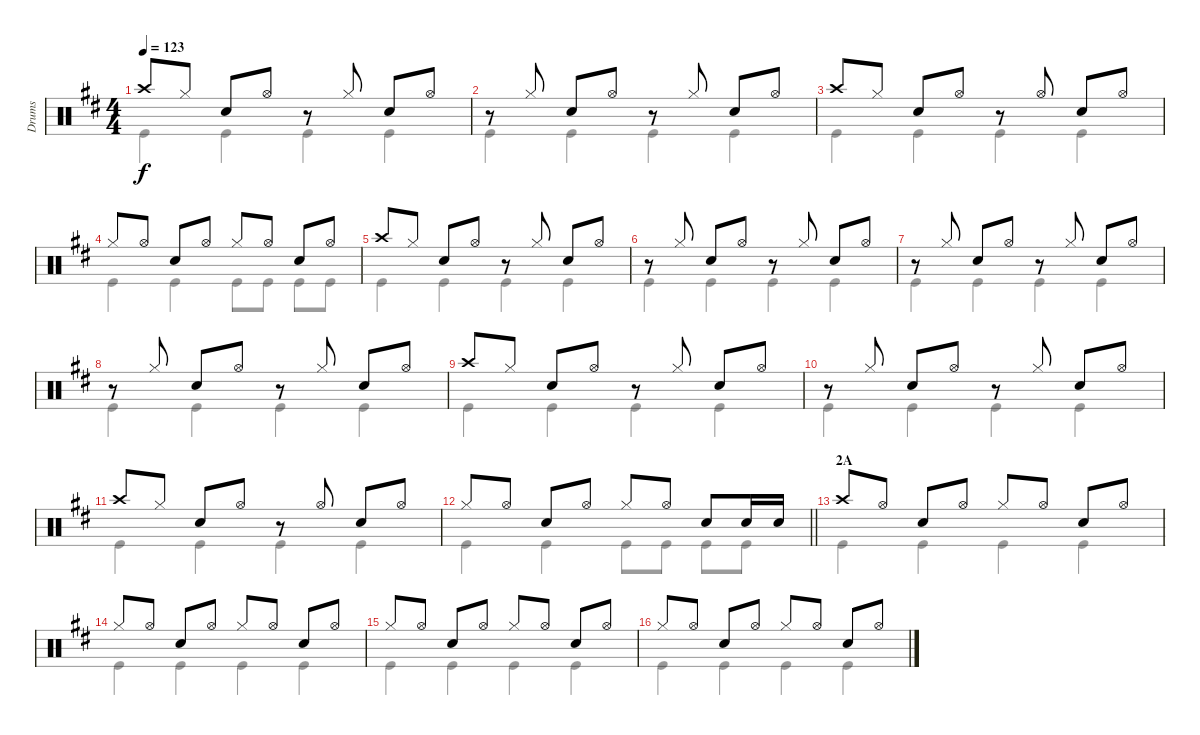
\track ("Drums" "Drums") {instrument percussion}
\staff {score}
\articulation defaults
\voice
\ts (4 4)
\tempo 123
\clef neutral
\ks d "Crash high (hit)".8{dy f} "Hi-Hat (closed)".8 "Snare (hit) 2".8 "Hi-Hat (open)".8
r.8 "Hi-Hat (closed)".8 "Snare (hit) 2".8 "Hi-Hat (open)".8 |
r.8 "Hi-Hat (closed)".8 "Snare (hit) 2".8 "Hi-Hat (open)".8 r.8 "Hi-Hat (closed)".8 "Snare (hit) 2".8 "Hi-Hat (open)".8 |
"Crash high (hit)".8 "Hi-Hat (closed)".8 "Snare (hit) 2".8 "Hi-Hat (open)".8 r.8 "Hi-Hat (open)".8 "Snare (hit) 2".8 "Hi-Hat (open)".8 |
"Hi-Hat (closed)".8 "Hi-Hat (open)".8 "Snare (hit) 2".8 "Hi-Hat (open)".8 "Hi-Hat (closed)".8 "Hi-Hat (open)".8 "Snare (hit) 2".8 "Hi-Hat (open)".8 |
"Crash high (hit)".8 "Hi-Hat (closed)".8 "Snare (hit) 2".8 "Hi-Hat (open)".8 r.8 "Hi-Hat (closed)".8 "Snare (hit) 2".8 "Hi-Hat (open)".8 |
r.8 "Hi-Hat (closed)".8 "Snare (hit) 2".8 "Hi-Hat (open)".8 r.8 "Hi-Hat (closed)".8 "Snare (hit) 2".8 "Hi-Hat (open)".8 |
r.8 "Hi-Hat (closed)".8 "Snare (hit) 2".8 "Hi-Hat (open)".8 r.8 "Hi-Hat (closed)".8 "Snare (hit) 2".8 "Hi-Hat (open)".8 |
r.8 "Hi-Hat (closed)".8 "Snare (hit) 2".8 "Hi-Hat (open)".8 r.8 "Hi-Hat (closed)".8 "Snare (hit) 2".8 "Hi-Hat (open)".8 |
"Crash high (hit)".8 "Hi-Hat (closed)".8 "Snare (hit) 2".8 "Hi-Hat (open)".8 r.8 "Hi-Hat (closed)".8 "Snare (hit) 2".8 "Hi-Hat (open)".8 |
r.8 "Hi-Hat (closed)".8 "Snare (hit) 2".8 "Hi-Hat (open)".8 r.8 "Hi-Hat (closed)".8 "Snare (hit) 2".8 "Hi-Hat (open)".8 |
"Crash high (hit)".8 "Hi-Hat (closed)".8 "Snare (hit) 2".8 "Hi-Hat (open)".8 r.8 "Hi-Hat (open)".8 "Snare (hit) 2".8 "Hi-Hat (open)".8 |
\barLineRight lightlight "Hi-Hat (closed)".8 "Hi-Hat (open)".8 "Snare (hit) 2".8 "Hi-Hat (open)".8 "Hi-Hat (closed)".8 "Hi-Hat (open)".8 "Snare (hit) 2".8 "Snare (hit) 2".16 "Snare (hit) 2".16
|
\section ("" "2A")
"Crash high (hit)".8 "Hi-Hat (open)".8 "Snare (hit) 2".8 "Hi-Hat (open)".8 "Hi-Hat (closed)".8 "Hi-Hat (open)".8 "Snare (hit) 2".8 "Hi-Hat (open)".8 |
"Hi-Hat (closed)".8 "Hi-Hat (open)".8 "Snare (hit) 2".8 "Hi-Hat (open)".8 "Hi-Hat (closed)".8 "Hi-Hat (open)".8 "Snare (hit) 2".8 "Hi-Hat (open)".8 |
"Hi-Hat (closed)".8 "Hi-Hat (open)".8 "Snare (hit) 2".8 "Hi-Hat (open)".8 "Hi-Hat (closed)".8 "Hi-Hat (open)".8 "Snare (hit) 2".8 "Hi-Hat (open)".8 |
"Hi-Hat (closed)".8 "Hi-Hat (open)".8 "Snare (hit) 2".8 "Hi-Hat (open)".8 "Hi-Hat (closed)".8 "Hi-Hat (open)".8 "Snare (hit) 2".8 "Hi-Hat (open)".8
\voice
\clef neutral
\ottava regular
\simile none
\ks d "Kick (hit)".4{dy f} "Kick (hit)".4 "Kick (hit)".4 "Kick (hit)".4
|
"Kick (hit)".4 "Kick (hit)".4 "Kick (hit)".4 "Kick (hit)".4 |
"Kick (hit)".4 "Kick (hit)".4 "Kick (hit)".4 "Kick (hit)".4 |
"Kick (hit)".4 "Kick (hit)".4 "Kick (hit)".8 "Kick (hit)".8 "Kick (hit)".8 "Kick (hit)".8 |
"Kick (hit)".4 "Kick (hit)".4 "Kick (hit)".4 "Kick (hit)".4 |
"Kick (hit)".4 "Kick (hit)".4 "Kick (hit)".4 "Kick (hit)".4 |
"Kick (hit)".4 "Kick (hit)".4 "Kick (hit)".4 "Kick (hit)".4 |
"Kick (hit)".4 "Kick (hit)".4 "Kick (hit)".4 "Kick (hit)".4 |
"Kick (hit)".4 "Kick (hit)".4 "Kick (hit)".4 "Kick (hit)".4 |
"Kick (hit)".4 "Kick (hit)".4 "Kick (hit)".4 "Kick (hit)".4 |
"Kick (hit)".4 "Kick (hit)".4 "Kick (hit)".4 "Kick (hit)".4 |
\barLineRight lightlight "Kick (hit)".4 "Kick (hit)".4 "Kick (hit)".8 "Kick (hit)".8 "Kick (hit)".8 "Kick (hit)".8
|
"Kick (hit)".4 "Kick (hit)".4 "Kick (hit)".4 "Kick (hit)".4 |
"Kick (hit)".4 "Kick (hit)".4 "Kick (hit)".4 "Kick (hit)".4 |
"Kick (hit)".4 "Kick (hit)".4 "Kick (hit)".4 "Kick (hit)".4 |
"Kick (hit)".4 "Kick (hit)".4 "Kick (hit)".4 "Kick (hit)".4
